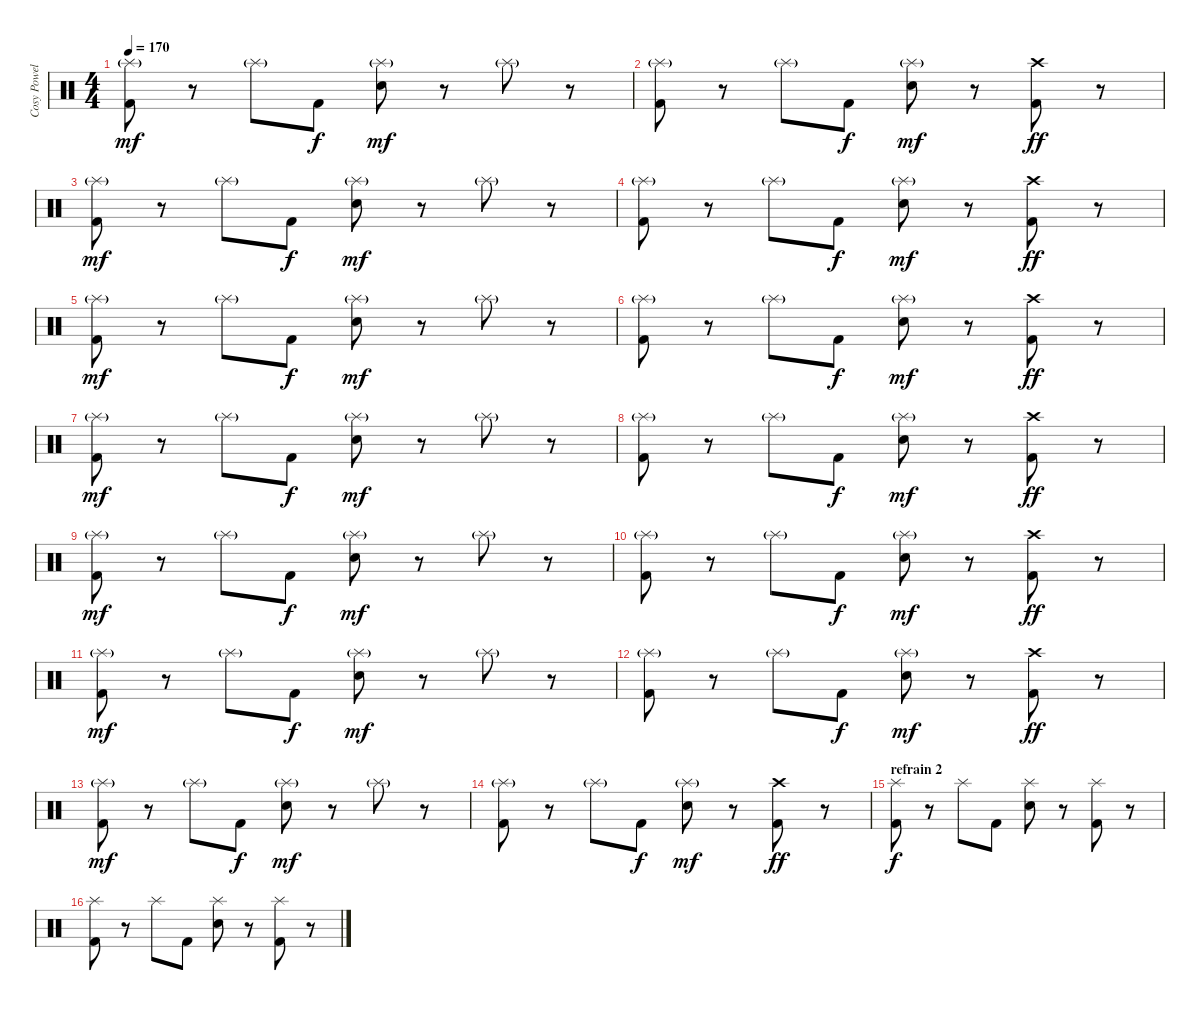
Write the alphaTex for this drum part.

\track ("Cosy Powell" "Cosy Powel") {instrument percussion}
\staff {score}
\articulation defaults
\ts (4 4)
\tempo 170
\clef neutral
\ks c
("Splash (hit)"{g} "Kick (hit) 2").8{dy mf} r.8 "Splash (hit)"{g}.8 "Kick (hit) 2".8{dy f} ("Splash (hit)"{g} "Snare (hit) 2").8{dy mf} r.8 "Splash (hit)"{g}.8 r.8 |
("Splash (hit)"{g} "Kick (hit) 2").8 r.8 "Splash (hit)"{g}.8 "Kick (hit) 2".8{dy f} ("Splash (hit)"{g} "Snare (hit) 2").8{dy mf} r.8 ("Crash high (hit)" "Kick (hit) 2").8{dy ff} r.8 |
("Splash (hit)"{g} "Kick (hit) 2").8{dy mf} r.8 "Splash (hit)"{g}.8 "Kick (hit) 2".8{dy f} ("Splash (hit)"{g} "Snare (hit) 2").8{dy mf} r.8 "Splash (hit)"{g}.8 r.8 |
("Splash (hit)"{g} "Kick (hit) 2").8 r.8 "Splash (hit)"{g}.8 "Kick (hit) 2".8{dy f} ("Splash (hit)"{g} "Snare (hit) 2").8{dy mf} r.8 ("Crash high (hit)" "Kick (hit) 2").8{dy ff} r.8 |
("Splash (hit)"{g} "Kick (hit) 2").8{dy mf} r.8 "Splash (hit)"{g}.8 "Kick (hit) 2".8{dy f} ("Splash (hit)"{g} "Snare (hit) 2").8{dy mf} r.8 "Splash (hit)"{g}.8 r.8 |
("Splash (hit)"{g} "Kick (hit) 2").8 r.8 "Splash (hit)"{g}.8 "Kick (hit) 2".8{dy f} ("Splash (hit)"{g} "Snare (hit) 2").8{dy mf} r.8 ("Crash high (hit)" "Kick (hit) 2").8{dy ff} r.8 |
("Splash (hit)"{g} "Kick (hit) 2").8{dy mf} r.8 "Splash (hit)"{g}.8 "Kick (hit) 2".8{dy f} ("Splash (hit)"{g} "Snare (hit) 2").8{dy mf} r.8 "Splash (hit)"{g}.8 r.8 |
("Splash (hit)"{g} "Kick (hit) 2").8 r.8 "Splash (hit)"{g}.8 "Kick (hit) 2".8{dy f} ("Splash (hit)"{g} "Snare (hit) 2").8{dy mf} r.8 ("Crash high (hit)" "Kick (hit) 2").8{dy ff} r.8 |
("Splash (hit)"{g} "Kick (hit) 2").8{dy mf} r.8 "Splash (hit)"{g}.8 "Kick (hit) 2".8{dy f} ("Splash (hit)"{g} "Snare (hit) 2").8{dy mf} r.8 "Splash (hit)"{g}.8 r.8 |
("Splash (hit)"{g} "Kick (hit) 2").8 r.8 "Splash (hit)"{g}.8 "Kick (hit) 2".8{dy f} ("Splash (hit)"{g} "Snare (hit) 2").8{dy mf} r.8 ("Crash high (hit)" "Kick (hit) 2").8{dy ff} r.8 |
("Splash (hit)"{g} "Kick (hit) 2").8{dy mf} r.8 "Splash (hit)"{g}.8 "Kick (hit) 2".8{dy f} ("Splash (hit)"{g} "Snare (hit) 2").8{dy mf} r.8 "Splash (hit)"{g}.8 r.8 |
("Splash (hit)"{g} "Kick (hit) 2").8 r.8 "Splash (hit)"{g}.8 "Kick (hit) 2".8{dy f} ("Splash (hit)"{g} "Snare (hit) 2").8{dy mf} r.8 ("Crash high (hit)" "Kick (hit) 2").8{dy ff} r.8 |
("Splash (hit)"{g} "Kick (hit) 2").8{dy mf} r.8 "Splash (hit)"{g}.8 "Kick (hit) 2".8{dy f} ("Splash (hit)"{g} "Snare (hit) 2").8{dy mf} r.8 "Splash (hit)"{g}.8 r.8 |
("Splash (hit)"{g} "Kick (hit) 2").8 r.8 "Splash (hit)"{g}.8 "Kick (hit) 2".8{dy f} ("Splash (hit)"{g} "Snare (hit) 2").8{dy mf} r.8 ("Crash high (hit)" "Kick (hit) 2").8{dy ff} r.8 |
\section ("" "refrain 2")
("Splash (hit)" "Kick (hit) 2").8{dy f} r.8 "Splash (hit)".8 "Kick (hit) 2".8 ("Splash (hit)" "Snare (hit) 2").8 r.8 ("Splash (hit)" "Kick (hit) 2").8 r.8 |
("Splash (hit)" "Kick (hit) 2").8 r.8 "Splash (hit)".8 "Kick (hit) 2".8 ("Splash (hit)" "Snare (hit) 2").8 r.8 ("Splash (hit)" "Kick (hit) 2").8 r.8
